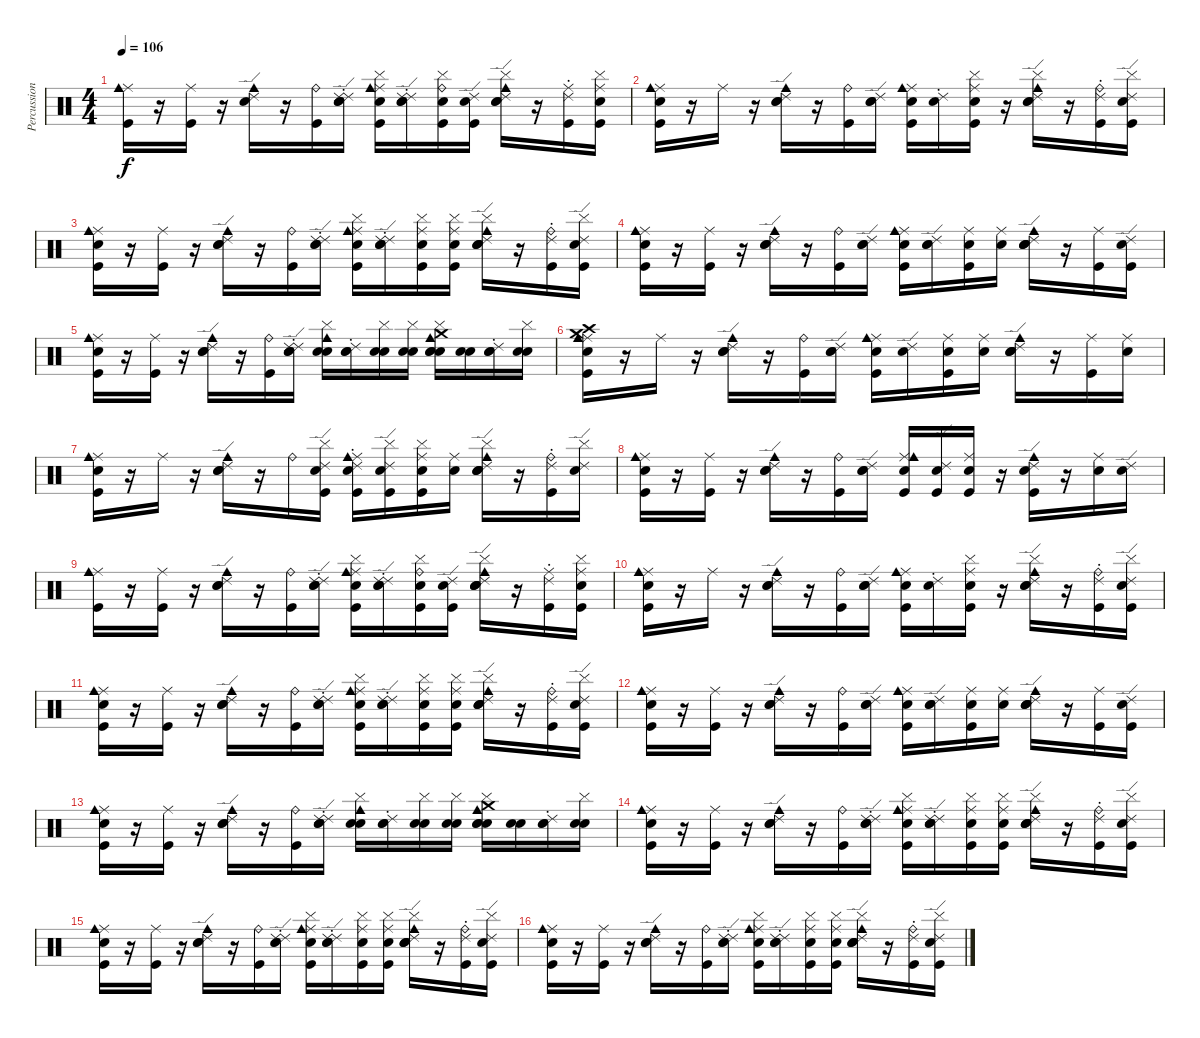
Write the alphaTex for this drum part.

\track ("Percussions (Zaac)" "Percussion") {instrument percussion}
\staff {score}
\articulation defaults
\ts (4 4)
\tempo 106
\clef neutral
\ks c
("Kick (hit)" "Ride (middle)" "Cowbell medium (hit)").16{dy f} r.16 ("Kick (hit)" "Ride (middle)").16 r.16 ("Electric Snare (hit)" "Cowbell medium (hit)" "Ride (edge) 2").16 r.16 ("Kick (hit)" "Ride (bell)").16 ("Snare (hit)" "Ride (choke) 2" "Electric Snare (hit)" "Ride (edge) 2").16 ("Snare (hit)" "Cymbal (hit)" "Kick (hit)" "Ride (middle)" "Cowbell medium (hit)").16 ("Snare (hit)" "Ride (choke) 2" "Electric Snare (hit)" "Ride (edge) 2").16 ("Snare (hit)" "Cymbal (hit)" "Kick (hit)" "Ride (bell)").16 ("Snare (hit)" "Kick (hit)" "Ride (edge) 2").16 ("Snare (hit)" "Cymbal (hit)" "Electric Snare (hit)" "Cowbell medium (hit)" "Ride (edge) 2").16 r.16 ("Ride (choke) 2" "Kick (hit)" "Ride (middle)").16 ("Snare (hit)" "Cymbal (hit)" "Kick (hit)" "Ride (middle)").16 |
("Snare (hit)" "Kick (hit)" "Ride (middle)" "Cowbell medium (hit)").16 r.16 "Ride (middle)".16 r.16 ("Hand Clap (hit)" "Electric Snare (hit)" "Cowbell medium (hit)" "Ride (edge) 2").16 r.16 ("Kick (hit)" "Ride (bell)").16 ("Snare (hit)" "Electric Snare (hit)" "Ride (edge) 2").16 ("Snare (hit)" "Kick (hit)" "Ride (middle)" "Cowbell medium (hit)").16 ("Snare (hit)" "Ride (choke) 2").16 ("Snare (hit)" "Cymbal (hit)" "Kick (hit)" "Ride (middle)").16 r.16 ("Hand Clap (hit)" "Cymbal (hit)" "Electric Snare (hit)" "Cowbell medium (hit)" "Ride (edge) 2").16 r.16 ("Ride (choke) 2" "Kick (hit)" "Ride (bell)").16 ("Snare (hit)" "Cymbal (hit)" "Kick (hit)" "Ride (edge) 2").16 |
("Snare (hit)" "Kick (hit)" "Ride (middle)" "Cowbell medium (hit)").16 r.16 ("Kick (hit)" "Ride (middle)").16 r.16 ("Hand Clap (hit)" "Electric Snare (hit)" "Cowbell medium (hit)" "Ride (edge) 2").16 r.16 ("Kick (hit)" "Ride (bell)").16 ("Snare (hit)" "Ride (choke) 2" "Electric Snare (hit)" "Ride (edge) 2").16 ("Snare (hit)" "Cymbal (hit)" "Kick (hit)" "Ride (middle)" "Cowbell medium (hit)").16 ("Snare (hit)" "Ride (choke) 2" "Electric Snare (hit)" "Ride (edge) 2").16 ("Snare (hit)" "Cymbal (hit)" "Kick (hit)" "Ride (middle)").16 ("Snare (hit)" "Cymbal (hit)" "Kick (hit)" "Ride (middle)").16 ("Snare (hit)" "Hand Clap (hit)" "Cymbal (hit)" "Electric Snare (hit)" "Cowbell medium (hit)" "Ride (edge) 2").16 r.16 ("Ride (choke) 2" "Kick (hit)" "Ride (bell)").16 ("Snare (hit)" "Cymbal (hit)" "Kick (hit)" "Ride (edge) 2").16 |
("Snare (hit)" "Kick (hit)" "Ride (middle)" "Cowbell medium (hit)").16 r.16 ("Kick (hit)" "Ride (middle)").16 r.16 ("Hand Clap (hit)" "Electric Snare (hit)" "Cowbell medium (hit)" "Ride (edge) 2").16 r.16 ("Kick (hit)" "Ride (bell)").16 ("Snare (hit)" "Electric Snare (hit)" "Ride (edge) 2").16 ("Snare (hit)" "Kick (hit)" "Ride (middle)" "Cowbell medium (hit)").16 ("Snare (hit)" "Electric Snare (hit)" "Ride (edge) 2").16 ("Snare (hit)" "Kick (hit)" "Ride (middle)").16 ("Snare (hit)" "Ride (middle)").16 ("Snare (hit)" "Hand Clap (hit)" "Electric Snare (hit)" "Cowbell medium (hit)" "Ride (edge) 2").16 r.16 ("Kick (hit)" "Ride (middle)").16 ("Snare (hit)" "Kick (hit)" "Ride (edge) 2").16 |
("Snare (hit)" "Kick (hit)" "Ride (middle)" "Cowbell medium (hit)").16 r.16 ("Kick (hit)" "Ride (middle)").16 r.16 ("Hand Clap (hit)" "Electric Snare (hit)" "Cowbell medium (hit)" "Ride (edge) 2").16 r.16 ("Kick (hit)" "Ride (bell)").16 ("Snare (hit)" "Ride (choke) 2" "Electric Snare (hit)" "Ride (edge) 2").16 ("Snare (hit)" "Cymbal (hit)" "Electric Snare (hit)" "Cowbell medium (hit)").16 ("Snare (hit)" "Ride (choke) 2" "Electric Snare (hit)").16 ("Snare (hit)" "Cymbal (hit)" "Electric Snare (hit)").16 ("Snare (hit)" "Cymbal (hit)" "Electric Snare (hit)").16 ("Snare (hit)" "Hand Clap (hit)" "Cymbal (hit)" "Electric Snare (hit)" "Cowbell medium (hit)" "Crash medium (hit)").16 ("Snare (hit)" "Electric Snare (hit)").16 ("Snare (hit)" "Ride (choke) 2" "Electric Snare (hit)").16 ("Snare (hit)" "Cymbal (hit)" "Electric Snare (hit)").16 |
("Snare (hit)" "Kick (hit)" "Crash high (hit)" "Ride (middle)" "Cowbell medium (hit)" "Crash medium (hit)").16 r.16 "Ride (middle)".16 r.16 ("Hand Clap (hit)" "Electric Snare (hit)" "Cowbell medium (hit)" "Ride (edge) 2").16 r.16 ("Kick (hit)" "Ride (bell)").16 ("Snare (hit)" "Electric Snare (hit)" "Ride (edge) 2").16 ("Snare (hit)" "Kick (hit)" "Ride (middle)" "Cowbell medium (hit)").16 ("Snare (hit)" "Ride (edge) 2").16 ("Snare (hit)" "Kick (hit)" "Ride (middle)").16 ("Snare (hit)" "Ride (middle)").16 ("Snare (hit)" "Hand Clap (hit)" "Electric Snare (hit)" "Cowbell medium (hit)" "Ride (edge) 2").16 r.16 ("Kick (hit)" "Ride (middle)").16 ("Snare (hit)" "Ride (middle)").16 |
("Snare (hit)" "Kick (hit)" "Ride (middle)" "Cowbell medium (hit)").16 r.16 "Ride (middle)".16 r.16 ("Hand Clap (hit)" "Electric Snare (hit)" "Cowbell medium (hit)" "Ride (edge) 2").16 r.16 "Ride (bell)".16 ("Snare (hit)" "Cymbal (hit)" "Kick (hit)" "Ride (edge) 2").16 ("Snare (hit)" "Ride (choke) 2" "Kick (hit)" "Ride (middle)" "Cowbell medium (hit)").16 ("Snare (hit)" "Cymbal (hit)" "Kick (hit)" "Ride (edge) 2").16 ("Snare (hit)" "Cymbal (hit)" "Kick (hit)" "Ride (middle)").16 ("Snare (hit)" "Ride (middle)").16 ("Snare (hit)" "Hand Clap (hit)" "Cymbal (hit)" "Electric Snare (hit)" "Cowbell medium (hit)" "Ride (edge) 2").16 r.16 ("Ride (choke) 2" "Kick (hit)" "Ride (bell)").16 ("Snare (hit)" "Cymbal (hit)" "Ride (edge) 2").16 |
("Snare (hit)" "Kick (hit)" "Ride (middle)" "Cowbell medium (hit)").16 r.16 ("Kick (hit)" "Ride (middle)").16 r.16 ("Hand Clap (hit)" "Electric Snare (hit)" "Cowbell medium (hit)" "Ride (edge) 2").16 r.16 ("Kick (hit)" "Ride (bell)").16 ("Snare (hit)" "Electric Snare (hit)" "Ride (edge) 2").16 ("Snare (hit)" "Kick (hit)" "Ride (middle)" "Cowbell medium (hit)").16 ("Snare (hit)" "Kick (hit)" "Ride (edge) 2").16 ("Snare (hit)" "Kick (hit)" "Ride (middle)").16 r.16 ("Hand Clap (hit)" "Kick (hit)" "Cowbell medium (hit)" "Ride (edge) 2").16 r.16 ("Electric Snare (hit)" "Ride (middle)").16 ("Snare (hit)" "Ride (edge) 2").16 |
("Kick (hit)" "Ride (middle)" "Cowbell medium (hit)").16 r.16 ("Kick (hit)" "Ride (middle)").16 r.16 ("Hand Clap (hit)" "Electric Snare (hit)" "Cowbell medium (hit)" "Ride (edge) 2").16 r.16 ("Kick (hit)" "Ride (bell)").16 ("Snare (hit)" "Ride (choke) 2" "Electric Snare (hit)" "Ride (edge) 2").16 ("Snare (hit)" "Cymbal (hit)" "Kick (hit)" "Ride (middle)" "Cowbell medium (hit)").16 ("Snare (hit)" "Ride (choke) 2" "Electric Snare (hit)" "Ride (edge) 2").16 ("Snare (hit)" "Cymbal (hit)" "Kick (hit)" "Ride (bell)").16 ("Snare (hit)" "Kick (hit)" "Ride (edge) 2").16 ("Snare (hit)" "Hand Clap (hit)" "Cymbal (hit)" "Electric Snare (hit)" "Cowbell medium (hit)" "Ride (edge) 2").16 r.16 ("Ride (choke) 2" "Kick (hit)" "Ride (middle)").16 ("Snare (hit)" "Cymbal (hit)" "Kick (hit)" "Ride (middle)").16 |
("Snare (hit)" "Kick (hit)" "Ride (middle)" "Cowbell medium (hit)").16 r.16 "Ride (middle)".16 r.16 ("Hand Clap (hit)" "Electric Snare (hit)" "Cowbell medium (hit)" "Ride (edge) 2").16 r.16 ("Kick (hit)" "Ride (bell)").16 ("Snare (hit)" "Electric Snare (hit)" "Ride (edge) 2").16 ("Snare (hit)" "Kick (hit)" "Ride (middle)" "Cowbell medium (hit)").16 ("Snare (hit)" "Ride (choke) 2").16 ("Snare (hit)" "Cymbal (hit)" "Kick (hit)" "Ride (middle)").16 r.16 ("Hand Clap (hit)" "Cymbal (hit)" "Electric Snare (hit)" "Cowbell medium (hit)" "Ride (edge) 2").16 r.16 ("Ride (choke) 2" "Kick (hit)" "Ride (bell)").16 ("Snare (hit)" "Cymbal (hit)" "Kick (hit)" "Ride (edge) 2").16 |
("Snare (hit)" "Kick (hit)" "Ride (middle)" "Cowbell medium (hit)").16 r.16 ("Kick (hit)" "Ride (middle)").16 r.16 ("Hand Clap (hit)" "Electric Snare (hit)" "Cowbell medium (hit)" "Ride (edge) 2").16 r.16 ("Kick (hit)" "Ride (bell)").16 ("Snare (hit)" "Ride (choke) 2" "Electric Snare (hit)" "Ride (edge) 2").16 ("Snare (hit)" "Cymbal (hit)" "Kick (hit)" "Ride (middle)" "Cowbell medium (hit)").16 ("Snare (hit)" "Ride (choke) 2" "Electric Snare (hit)" "Ride (edge) 2").16 ("Snare (hit)" "Cymbal (hit)" "Kick (hit)" "Ride (middle)").16 ("Snare (hit)" "Cymbal (hit)" "Kick (hit)" "Ride (middle)").16 ("Snare (hit)" "Hand Clap (hit)" "Cymbal (hit)" "Electric Snare (hit)" "Cowbell medium (hit)" "Ride (edge) 2").16 r.16 ("Ride (choke) 2" "Kick (hit)" "Ride (bell)").16 ("Snare (hit)" "Cymbal (hit)" "Kick (hit)" "Ride (edge) 2").16 |
("Snare (hit)" "Kick (hit)" "Ride (middle)" "Cowbell medium (hit)").16 r.16 ("Kick (hit)" "Ride (middle)").16 r.16 ("Hand Clap (hit)" "Electric Snare (hit)" "Cowbell medium (hit)" "Ride (edge) 2").16 r.16 ("Kick (hit)" "Ride (bell)").16 ("Snare (hit)" "Electric Snare (hit)" "Ride (edge) 2").16 ("Snare (hit)" "Kick (hit)" "Ride (middle)" "Cowbell medium (hit)").16 ("Snare (hit)" "Electric Snare (hit)" "Ride (edge) 2").16 ("Snare (hit)" "Kick (hit)" "Ride (middle)").16 ("Snare (hit)" "Ride (middle)").16 ("Snare (hit)" "Hand Clap (hit)" "Electric Snare (hit)" "Cowbell medium (hit)" "Ride (edge) 2").16 r.16 ("Kick (hit)" "Ride (middle)").16 ("Snare (hit)" "Kick (hit)" "Ride (edge) 2").16 |
("Snare (hit)" "Kick (hit)" "Ride (middle)" "Cowbell medium (hit)").16 r.16 ("Kick (hit)" "Ride (middle)").16 r.16 ("Hand Clap (hit)" "Electric Snare (hit)" "Cowbell medium (hit)" "Ride (edge) 2").16 r.16 ("Kick (hit)" "Ride (bell)").16 ("Snare (hit)" "Ride (choke) 2" "Electric Snare (hit)" "Ride (edge) 2").16 ("Snare (hit)" "Cymbal (hit)" "Electric Snare (hit)" "Cowbell medium (hit)").16 ("Snare (hit)" "Ride (choke) 2" "Electric Snare (hit)").16 ("Snare (hit)" "Cymbal (hit)" "Electric Snare (hit)").16 ("Snare (hit)" "Cymbal (hit)" "Electric Snare (hit)").16 ("Snare (hit)" "Hand Clap (hit)" "Cymbal (hit)" "Electric Snare (hit)" "Cowbell medium (hit)" "Crash medium (hit)").16 ("Snare (hit)" "Electric Snare (hit)").16 ("Snare (hit)" "Ride (choke) 2" "Electric Snare (hit)").16 ("Snare (hit)" "Cymbal (hit)" "Electric Snare (hit)").16 |
("Snare (hit)" "Kick (hit)" "Ride (middle)" "Cowbell medium (hit)").16 r.16 ("Kick (hit)" "Ride (middle)").16 r.16 ("Hand Clap (hit)" "Electric Snare (hit)" "Cowbell medium (hit)" "Ride (edge) 2").16 r.16 ("Kick (hit)" "Ride (bell)").16 ("Snare (hit)" "Ride (choke) 2" "Electric Snare (hit)" "Ride (edge) 2").16 ("Snare (hit)" "Cymbal (hit)" "Kick (hit)" "Ride (middle)" "Cowbell medium (hit)").16 ("Snare (hit)" "Ride (choke) 2" "Electric Snare (hit)" "Ride (edge) 2").16 ("Snare (hit)" "Cymbal (hit)" "Kick (hit)" "Ride (middle)").16 ("Snare (hit)" "Cymbal (hit)" "Kick (hit)" "Ride (middle)").16 ("Snare (hit)" "Hand Clap (hit)" "Cymbal (hit)" "Electric Snare (hit)" "Cowbell medium (hit)" "Ride (edge) 2").16 r.16 ("Ride (choke) 2" "Kick (hit)" "Ride (bell)").16 ("Snare (hit)" "Cymbal (hit)" "Kick (hit)" "Ride (edge) 2").16 |
("Snare (hit)" "Kick (hit)" "Ride (middle)" "Cowbell medium (hit)").16 r.16 ("Kick (hit)" "Ride (middle)").16 r.16 ("Hand Clap (hit)" "Electric Snare (hit)" "Cowbell medium (hit)" "Ride (edge) 2").16 r.16 ("Kick (hit)" "Ride (bell)").16 ("Snare (hit)" "Ride (choke) 2" "Electric Snare (hit)" "Ride (edge) 2").16 ("Snare (hit)" "Cymbal (hit)" "Kick (hit)" "Ride (middle)" "Cowbell medium (hit)").16 ("Snare (hit)" "Ride (choke) 2" "Electric Snare (hit)" "Ride (edge) 2").16 ("Snare (hit)" "Cymbal (hit)" "Kick (hit)" "Ride (middle)").16 ("Snare (hit)" "Cymbal (hit)" "Kick (hit)" "Ride (middle)").16 ("Snare (hit)" "Hand Clap (hit)" "Cymbal (hit)" "Electric Snare (hit)" "Cowbell medium (hit)" "Ride (edge) 2").16 r.16 ("Ride (choke) 2" "Kick (hit)" "Ride (bell)").16 ("Snare (hit)" "Cymbal (hit)" "Kick (hit)" "Ride (edge) 2").16 |
("Snare (hit)" "Kick (hit)" "Ride (middle)" "Cowbell medium (hit)").16 r.16 ("Kick (hit)" "Ride (middle)").16 r.16 ("Hand Clap (hit)" "Electric Snare (hit)" "Cowbell medium (hit)" "Ride (edge) 2").16 r.16 ("Kick (hit)" "Ride (bell)").16 ("Snare (hit)" "Ride (choke) 2" "Electric Snare (hit)" "Ride (edge) 2").16 ("Snare (hit)" "Cymbal (hit)" "Kick (hit)" "Ride (middle)" "Cowbell medium (hit)").16 ("Snare (hit)" "Ride (choke) 2" "Electric Snare (hit)" "Ride (edge) 2").16 ("Snare (hit)" "Cymbal (hit)" "Kick (hit)" "Ride (middle)").16 ("Snare (hit)" "Cymbal (hit)" "Kick (hit)" "Ride (middle)").16 ("Snare (hit)" "Hand Clap (hit)" "Cymbal (hit)" "Electric Snare (hit)" "Cowbell medium (hit)" "Ride (edge) 2").16 r.16 ("Ride (choke) 2" "Kick (hit)" "Ride (bell)").16 ("Snare (hit)" "Cymbal (hit)" "Kick (hit)" "Ride (edge) 2").16
